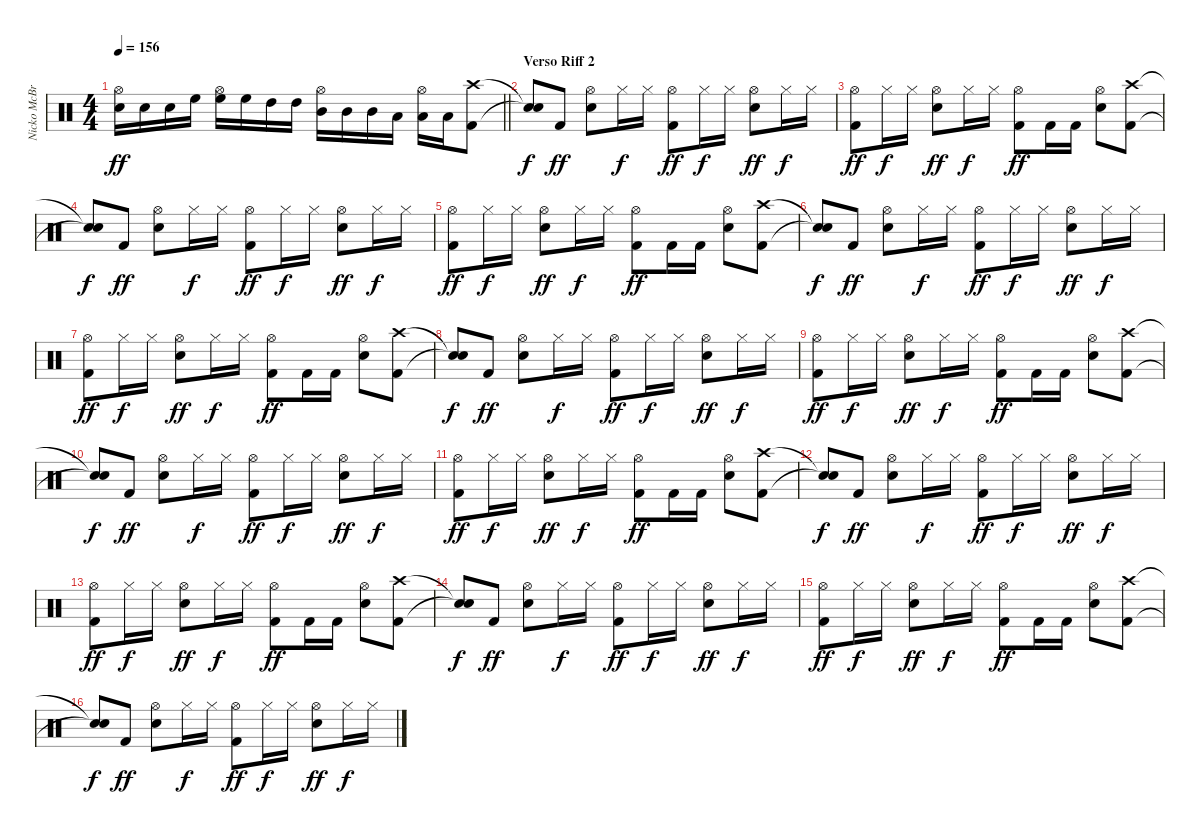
\track ("Nicko McBrain" "Nicko McBr") {instrument percussion}
\staff {score}
\articulation defaults
\ts (4 4)
\tempo 156
\clef neutral
\barLineRight lightlight
\ks c
("Snare (hit) 2" "Hi-Hat (open)").16{dy ff} "Snare (hit) 2".16 "Snare (hit) 2".16 "High Floor Tom (hit)".16 ("Hi-Hat (open)" "High Floor Tom (hit)").16 "High Floor Tom (hit)".16 "High Tom (hit)".16 "High Tom (hit)".16 ("Hi-Hat (open)" "Mid Tom (hit)").16 "Mid Tom (hit)".16 "Mid Tom (hit)".16 "Low Tom (hit)".16 ("Low Tom (hit)" "Hi-Hat (open)").16 "Low Tom (hit)".16 ("Kick (hit) 2" "Crash high (hit)").8 |
\section ("" "Verso Riff 2")
("Snare (hit)"{t} "Snare (hit)"{t}).8{dy f} "Kick (hit) 2".8{dy ff} ("Snare (hit) 2" "Hi-Hat (open)").8 "Hi-Hat (closed)".16{dy f} "Hi-Hat (closed)".16 ("Kick (hit) 2" "Hi-Hat (open)").8{dy ff} "Hi-Hat (closed)".16{dy f} "Hi-Hat (closed)".16 ("Snare (hit) 2" "Hi-Hat (open)").8{dy ff} "Hi-Hat (closed)".16{dy f} "Hi-Hat (closed)".16 |
("Kick (hit) 2" "Hi-Hat (open)").8{dy ff} "Hi-Hat (closed)".16{dy f} "Hi-Hat (closed)".16 ("Snare (hit) 2" "Hi-Hat (open)").8{dy ff} "Hi-Hat (closed)".16{dy f} "Hi-Hat (closed)".16 ("Kick (hit) 2" "Hi-Hat (open)").8{dy ff} "Kick (hit) 2".16 "Kick (hit) 2".16 ("Snare (hit) 2" "Hi-Hat (open)").8 ("Kick (hit) 2" "Crash high (hit)").8 |
("Snare (hit)"{t} "Snare (hit)"{t}).8{dy f} "Kick (hit) 2".8{dy ff} ("Snare (hit) 2" "Hi-Hat (open)").8 "Hi-Hat (closed)".16{dy f} "Hi-Hat (closed)".16 ("Kick (hit) 2" "Hi-Hat (open)").8{dy ff} "Hi-Hat (closed)".16{dy f} "Hi-Hat (closed)".16 ("Snare (hit) 2" "Hi-Hat (open)").8{dy ff} "Hi-Hat (closed)".16{dy f} "Hi-Hat (closed)".16 |
("Kick (hit) 2" "Hi-Hat (open)").8{dy ff} "Hi-Hat (closed)".16{dy f} "Hi-Hat (closed)".16 ("Snare (hit) 2" "Hi-Hat (open)").8{dy ff} "Hi-Hat (closed)".16{dy f} "Hi-Hat (closed)".16 ("Kick (hit) 2" "Hi-Hat (open)").8{dy ff} "Kick (hit) 2".16 "Kick (hit) 2".16 ("Snare (hit) 2" "Hi-Hat (open)").8 ("Kick (hit) 2" "Crash high (hit)").8 |
("Snare (hit)"{t} "Snare (hit)"{t}).8{dy f} "Kick (hit) 2".8{dy ff} ("Snare (hit) 2" "Hi-Hat (open)").8 "Hi-Hat (closed)".16{dy f} "Hi-Hat (closed)".16 ("Kick (hit) 2" "Hi-Hat (open)").8{dy ff} "Hi-Hat (closed)".16{dy f} "Hi-Hat (closed)".16 ("Snare (hit) 2" "Hi-Hat (open)").8{dy ff} "Hi-Hat (closed)".16{dy f} "Hi-Hat (closed)".16 |
("Kick (hit) 2" "Hi-Hat (open)").8{dy ff} "Hi-Hat (closed)".16{dy f} "Hi-Hat (closed)".16 ("Snare (hit) 2" "Hi-Hat (open)").8{dy ff} "Hi-Hat (closed)".16{dy f} "Hi-Hat (closed)".16 ("Kick (hit) 2" "Hi-Hat (open)").8{dy ff} "Kick (hit) 2".16 "Kick (hit) 2".16 ("Snare (hit) 2" "Hi-Hat (open)").8 ("Kick (hit) 2" "Crash high (hit)").8 |
("Snare (hit)"{t} "Snare (hit)"{t}).8{dy f} "Kick (hit) 2".8{dy ff} ("Snare (hit) 2" "Hi-Hat (open)").8 "Hi-Hat (closed)".16{dy f} "Hi-Hat (closed)".16 ("Kick (hit) 2" "Hi-Hat (open)").8{dy ff} "Hi-Hat (closed)".16{dy f} "Hi-Hat (closed)".16 ("Snare (hit) 2" "Hi-Hat (open)").8{dy ff} "Hi-Hat (closed)".16{dy f} "Hi-Hat (closed)".16 |
("Kick (hit) 2" "Hi-Hat (open)").8{dy ff} "Hi-Hat (closed)".16{dy f} "Hi-Hat (closed)".16 ("Snare (hit) 2" "Hi-Hat (open)").8{dy ff} "Hi-Hat (closed)".16{dy f} "Hi-Hat (closed)".16 ("Kick (hit) 2" "Hi-Hat (open)").8{dy ff} "Kick (hit) 2".16 "Kick (hit) 2".16 ("Snare (hit) 2" "Hi-Hat (open)").8 ("Kick (hit) 2" "Crash high (hit)").8 |
("Snare (hit)"{t} "Snare (hit)"{t}).8{dy f} "Kick (hit) 2".8{dy ff} ("Snare (hit) 2" "Hi-Hat (open)").8 "Hi-Hat (closed)".16{dy f} "Hi-Hat (closed)".16 ("Kick (hit) 2" "Hi-Hat (open)").8{dy ff} "Hi-Hat (closed)".16{dy f} "Hi-Hat (closed)".16 ("Snare (hit) 2" "Hi-Hat (open)").8{dy ff} "Hi-Hat (closed)".16{dy f} "Hi-Hat (closed)".16 |
("Kick (hit) 2" "Hi-Hat (open)").8{dy ff} "Hi-Hat (closed)".16{dy f} "Hi-Hat (closed)".16 ("Snare (hit) 2" "Hi-Hat (open)").8{dy ff} "Hi-Hat (closed)".16{dy f} "Hi-Hat (closed)".16 ("Kick (hit) 2" "Hi-Hat (open)").8{dy ff} "Kick (hit) 2".16 "Kick (hit) 2".16 ("Snare (hit) 2" "Hi-Hat (open)").8 ("Kick (hit) 2" "Crash high (hit)").8 |
("Snare (hit)"{t} "Snare (hit)"{t}).8{dy f} "Kick (hit) 2".8{dy ff} ("Snare (hit) 2" "Hi-Hat (open)").8 "Hi-Hat (closed)".16{dy f} "Hi-Hat (closed)".16 ("Kick (hit) 2" "Hi-Hat (open)").8{dy ff} "Hi-Hat (closed)".16{dy f} "Hi-Hat (closed)".16 ("Snare (hit) 2" "Hi-Hat (open)").8{dy ff} "Hi-Hat (closed)".16{dy f} "Hi-Hat (closed)".16 |
("Kick (hit) 2" "Hi-Hat (open)").8{dy ff} "Hi-Hat (closed)".16{dy f} "Hi-Hat (closed)".16 ("Snare (hit) 2" "Hi-Hat (open)").8{dy ff} "Hi-Hat (closed)".16{dy f} "Hi-Hat (closed)".16 ("Kick (hit) 2" "Hi-Hat (open)").8{dy ff} "Kick (hit) 2".16 "Kick (hit) 2".16 ("Snare (hit) 2" "Hi-Hat (open)").8 ("Kick (hit) 2" "Crash high (hit)").8 |
("Snare (hit)"{t} "Snare (hit)"{t}).8{dy f} "Kick (hit) 2".8{dy ff} ("Snare (hit) 2" "Hi-Hat (open)").8 "Hi-Hat (closed)".16{dy f} "Hi-Hat (closed)".16 ("Kick (hit) 2" "Hi-Hat (open)").8{dy ff} "Hi-Hat (closed)".16{dy f} "Hi-Hat (closed)".16 ("Snare (hit) 2" "Hi-Hat (open)").8{dy ff} "Hi-Hat (closed)".16{dy f} "Hi-Hat (closed)".16 |
("Kick (hit) 2" "Hi-Hat (open)").8{dy ff} "Hi-Hat (closed)".16{dy f} "Hi-Hat (closed)".16 ("Snare (hit) 2" "Hi-Hat (open)").8{dy ff} "Hi-Hat (closed)".16{dy f} "Hi-Hat (closed)".16 ("Kick (hit) 2" "Hi-Hat (open)").8{dy ff} "Kick (hit) 2".16 "Kick (hit) 2".16 ("Snare (hit) 2" "Hi-Hat (open)").8 ("Kick (hit) 2" "Crash high (hit)").8 |
("Snare (hit)"{t} "Snare (hit)"{t}).8{dy f} "Kick (hit) 2".8{dy ff} ("Snare (hit) 2" "Hi-Hat (open)").8 "Hi-Hat (closed)".16{dy f} "Hi-Hat (closed)".16 ("Kick (hit) 2" "Hi-Hat (open)").8{dy ff} "Hi-Hat (closed)".16{dy f} "Hi-Hat (closed)".16 ("Snare (hit) 2" "Hi-Hat (open)").8{dy ff} "Hi-Hat (closed)".16{dy f} "Hi-Hat (closed)".16
